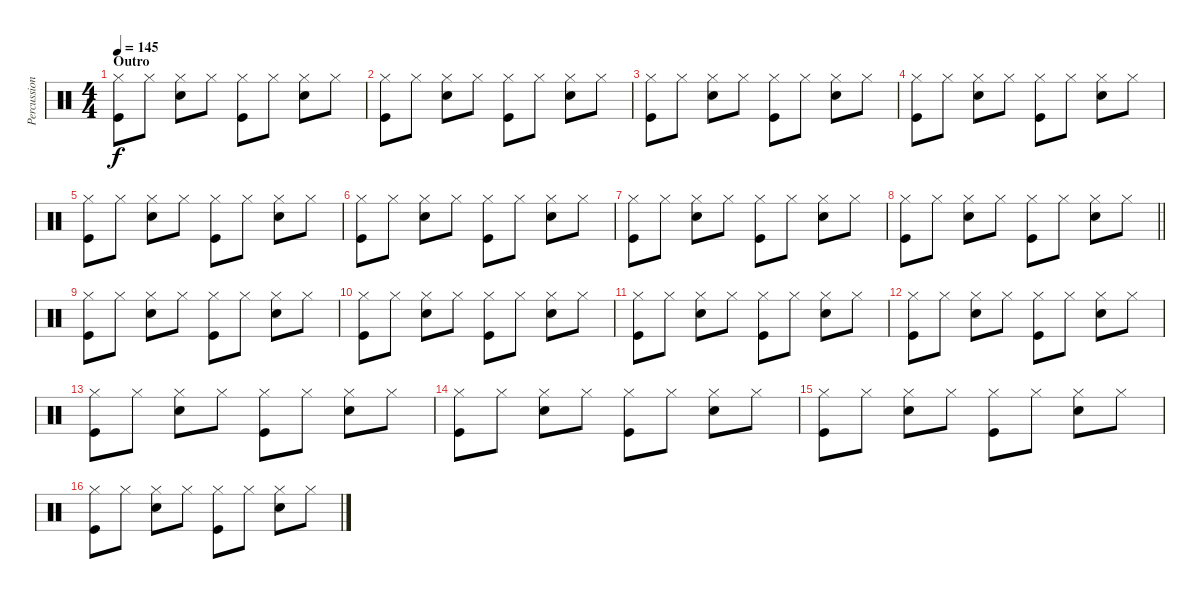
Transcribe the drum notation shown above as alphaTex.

\track ("Percussion" "Percussion") {instrument percussion}
\staff {score}
\articulation defaults
\ts (4 4)
\section ("" "Outro")
\tempo 145
\clef neutral
\ks c
("Hi-Hat (closed)" "Kick (hit)").8{dy f} "Hi-Hat (closed)".8 ("Hi-Hat (closed)" "Snare (hit) 2").8 "Hi-Hat (closed)".8 ("Hi-Hat (closed)" "Kick (hit)").8 "Hi-Hat (closed)".8 ("Hi-Hat (closed)" "Electric Snare (hit)").8 "Hi-Hat (closed)".8 |
("Hi-Hat (closed)" "Kick (hit)").8 "Hi-Hat (closed)".8 ("Hi-Hat (closed)" "Snare (hit) 2").8 "Hi-Hat (closed)".8 ("Hi-Hat (closed)" "Kick (hit)").8 "Hi-Hat (closed)".8 ("Hi-Hat (closed)" "Electric Snare (hit)").8 "Hi-Hat (closed)".8 |
("Hi-Hat (closed)" "Kick (hit)").8 "Hi-Hat (closed)".8 ("Hi-Hat (closed)" "Snare (hit) 2").8 "Hi-Hat (closed)".8 ("Hi-Hat (closed)" "Kick (hit)").8 "Hi-Hat (closed)".8 ("Hi-Hat (closed)" "Electric Snare (hit)").8 "Hi-Hat (closed)".8 |
("Hi-Hat (closed)" "Kick (hit)").8 "Hi-Hat (closed)".8 ("Hi-Hat (closed)" "Snare (hit) 2").8 "Hi-Hat (closed)".8 ("Hi-Hat (closed)" "Kick (hit)").8 "Hi-Hat (closed)".8 ("Hi-Hat (closed)" "Electric Snare (hit)").8 "Hi-Hat (closed)".8 |
("Hi-Hat (closed)" "Kick (hit)").8 "Hi-Hat (closed)".8 ("Hi-Hat (closed)" "Snare (hit) 2").8 "Hi-Hat (closed)".8 ("Hi-Hat (closed)" "Kick (hit)").8 "Hi-Hat (closed)".8 ("Hi-Hat (closed)" "Electric Snare (hit)").8 "Hi-Hat (closed)".8 |
("Hi-Hat (closed)" "Kick (hit)").8 "Hi-Hat (closed)".8 ("Hi-Hat (closed)" "Snare (hit) 2").8 "Hi-Hat (closed)".8 ("Hi-Hat (closed)" "Kick (hit)").8 "Hi-Hat (closed)".8 ("Hi-Hat (closed)" "Electric Snare (hit)").8 "Hi-Hat (closed)".8 |
("Hi-Hat (closed)" "Kick (hit)").8 "Hi-Hat (closed)".8 ("Hi-Hat (closed)" "Snare (hit) 2").8 "Hi-Hat (closed)".8 ("Hi-Hat (closed)" "Kick (hit)").8 "Hi-Hat (closed)".8 ("Hi-Hat (closed)" "Electric Snare (hit)").8 "Hi-Hat (closed)".8 |
\barLineRight lightlight
("Hi-Hat (closed)" "Kick (hit)").8 "Hi-Hat (closed)".8 ("Hi-Hat (closed)" "Snare (hit) 2").8 "Hi-Hat (closed)".8 ("Hi-Hat (closed)" "Kick (hit)").8 "Hi-Hat (closed)".8 ("Hi-Hat (closed)" "Electric Snare (hit)").8 "Hi-Hat (closed)".8 |
("Hi-Hat (closed)" "Kick (hit)").8 "Hi-Hat (closed)".8 ("Hi-Hat (closed)" "Snare (hit) 2").8 "Hi-Hat (closed)".8 ("Hi-Hat (closed)" "Kick (hit)").8 "Hi-Hat (closed)".8 ("Hi-Hat (closed)" "Electric Snare (hit)").8 "Hi-Hat (closed)".8 |
("Hi-Hat (closed)" "Kick (hit)").8 "Hi-Hat (closed)".8 ("Hi-Hat (closed)" "Snare (hit) 2").8 "Hi-Hat (closed)".8 ("Hi-Hat (closed)" "Kick (hit)").8 "Hi-Hat (closed)".8 ("Hi-Hat (closed)" "Electric Snare (hit)").8 "Hi-Hat (closed)".8 |
("Hi-Hat (closed)" "Kick (hit)").8 "Hi-Hat (closed)".8 ("Hi-Hat (closed)" "Snare (hit) 2").8 "Hi-Hat (closed)".8 ("Hi-Hat (closed)" "Kick (hit)").8 "Hi-Hat (closed)".8 ("Hi-Hat (closed)" "Electric Snare (hit)").8 "Hi-Hat (closed)".8 |
("Hi-Hat (closed)" "Kick (hit)").8 "Hi-Hat (closed)".8 ("Hi-Hat (closed)" "Snare (hit) 2").8 "Hi-Hat (closed)".8 ("Hi-Hat (closed)" "Kick (hit)").8 "Hi-Hat (closed)".8 ("Hi-Hat (closed)" "Electric Snare (hit)").8 "Hi-Hat (closed)".8 |
("Hi-Hat (closed)" "Kick (hit)").8 "Hi-Hat (closed)".8 ("Hi-Hat (closed)" "Snare (hit) 2").8 "Hi-Hat (closed)".8 ("Hi-Hat (closed)" "Kick (hit)").8 "Hi-Hat (closed)".8 ("Hi-Hat (closed)" "Electric Snare (hit)").8 "Hi-Hat (closed)".8 |
("Hi-Hat (closed)" "Kick (hit)").8 "Hi-Hat (closed)".8 ("Hi-Hat (closed)" "Snare (hit) 2").8 "Hi-Hat (closed)".8 ("Hi-Hat (closed)" "Kick (hit)").8 "Hi-Hat (closed)".8 ("Hi-Hat (closed)" "Electric Snare (hit)").8 "Hi-Hat (closed)".8 |
("Hi-Hat (closed)" "Kick (hit)").8 "Hi-Hat (closed)".8 ("Hi-Hat (closed)" "Snare (hit) 2").8 "Hi-Hat (closed)".8 ("Hi-Hat (closed)" "Kick (hit)").8 "Hi-Hat (closed)".8 ("Hi-Hat (closed)" "Electric Snare (hit)").8 "Hi-Hat (closed)".8 |
("Hi-Hat (closed)" "Kick (hit)").8 "Hi-Hat (closed)".8 ("Hi-Hat (closed)" "Snare (hit) 2").8 "Hi-Hat (closed)".8 ("Hi-Hat (closed)" "Kick (hit)").8 "Hi-Hat (closed)".8 ("Hi-Hat (closed)" "Electric Snare (hit)").8 "Hi-Hat (closed)".8
